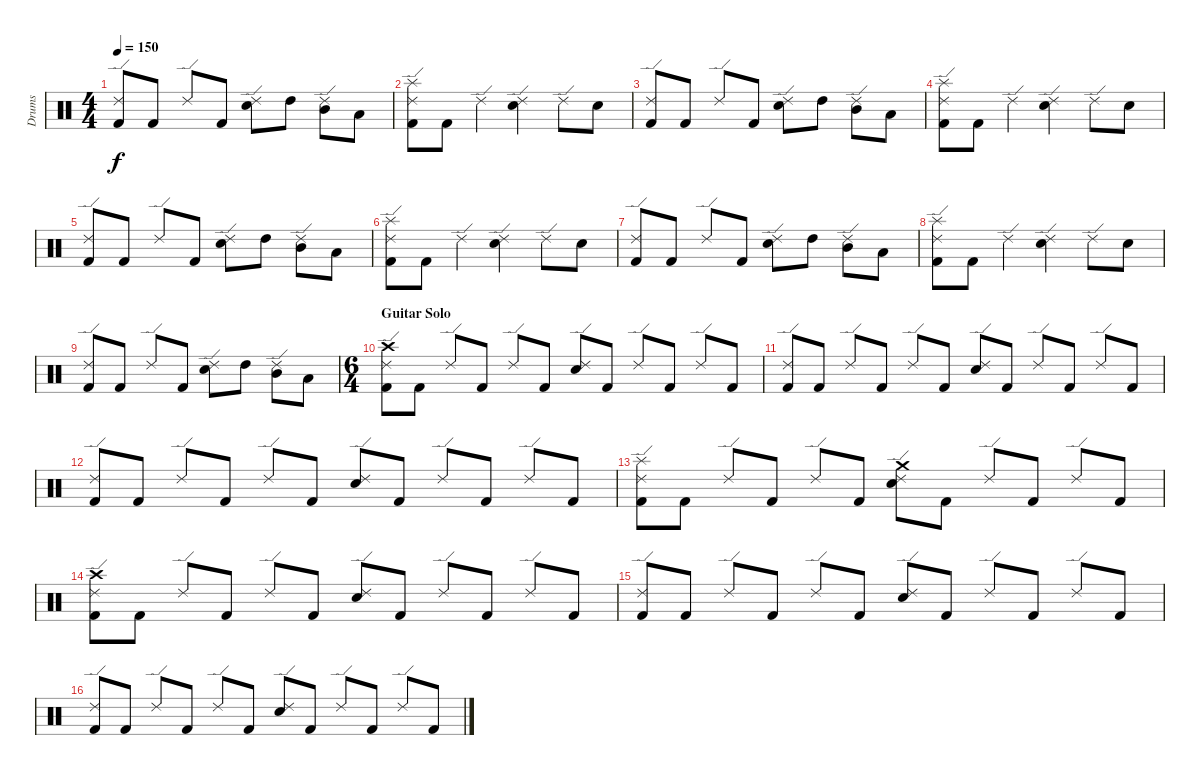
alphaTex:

\track ("Drums" "Drums") {instrument percussion}
\staff {score}
\articulation defaults
\ts (4 4)
\tempo 150
\clef neutral
\ks c
("Ride (edge) 2" "Kick (hit) 2").8{dy f} "Kick (hit) 2".8 "Ride (edge) 2".8 "Kick (hit) 2".8 ("Ride (edge) 2" "Electric Snare (hit)").8 "High Tom (hit)".8 ("Ride (edge) 2" "Mid Tom (hit)").8 "Low Tom (hit)".8 |
("Splash (hit)" "Ride (edge) 2" "Kick (hit) 2").8 "Kick (hit) 2".8 "Ride (edge) 2".4 ("Ride (edge) 2" "Electric Snare (hit)").4 "Ride (edge) 2".8 "Electric Snare (hit)".8 |
("Ride (edge) 2" "Kick (hit) 2").8 "Kick (hit) 2".8 "Ride (edge) 2".8 "Kick (hit) 2".8 ("Ride (edge) 2" "Electric Snare (hit)").8 "High Tom (hit)".8 ("Ride (edge) 2" "Mid Tom (hit)").8 "Low Tom (hit)".8 |
("Splash (hit)" "Ride (edge) 2" "Kick (hit) 2").8 "Kick (hit) 2".8 "Ride (edge) 2".4 ("Ride (edge) 2" "Electric Snare (hit)").4 "Ride (edge) 2".8 "Electric Snare (hit)".8 |
("Ride (edge) 2" "Kick (hit) 2").8 "Kick (hit) 2".8 "Ride (edge) 2".8 "Kick (hit) 2".8 ("Ride (edge) 2" "Electric Snare (hit)").8 "High Tom (hit)".8 ("Ride (edge) 2" "Mid Tom (hit)").8 "Low Tom (hit)".8 |
("Splash (hit)" "Ride (edge) 2" "Kick (hit) 2").8 "Kick (hit) 2".8 "Ride (edge) 2".4 ("Ride (edge) 2" "Electric Snare (hit)").4 "Ride (edge) 2".8 "Electric Snare (hit)".8 |
("Ride (edge) 2" "Kick (hit) 2").8 "Kick (hit) 2".8 "Ride (edge) 2".8 "Kick (hit) 2".8 ("Ride (edge) 2" "Electric Snare (hit)").8 "High Tom (hit)".8 ("Ride (edge) 2" "Mid Tom (hit)").8 "Low Tom (hit)".8 |
("Splash (hit)" "Ride (edge) 2" "Kick (hit) 2").8 "Kick (hit) 2".8 "Ride (edge) 2".4 ("Ride (edge) 2" "Electric Snare (hit)").4 "Ride (edge) 2".8 "Electric Snare (hit)".8 |
("Ride (edge) 2" "Kick (hit) 2").8 "Kick (hit) 2".8 "Ride (edge) 2".8 "Kick (hit) 2".8 ("Ride (edge) 2" "Electric Snare (hit)").8 "High Tom (hit)".8 ("Ride (edge) 2" "Mid Tom (hit)").8 "Low Tom (hit)".8 |
\ts (6 4)
\section ("" "Guitar Solo")
("Crash high (hit)" "Ride (edge) 2" "Kick (hit) 2").8 "Kick (hit) 2".8 "Ride (edge) 2".8 "Kick (hit) 2".8 "Ride (edge) 2".8 "Kick (hit) 2".8 ("Ride (edge) 2" "Electric Snare (hit)").8 "Kick (hit) 2".8 "Ride (edge) 2".8 "Kick (hit) 2".8 "Ride (edge) 2".8 "Kick (hit) 2".8 |
("Ride (edge) 2" "Kick (hit) 2").8 "Kick (hit) 2".8 "Ride (edge) 2".8 "Kick (hit) 2".8 "Ride (edge) 2".8 "Kick (hit) 2".8 ("Ride (edge) 2" "Electric Snare (hit)").8 "Kick (hit) 2".8 "Ride (edge) 2".8 "Kick (hit) 2".8 "Ride (edge) 2".8 "Kick (hit) 2".8 |
("Ride (edge) 2" "Kick (hit) 2").8 "Kick (hit) 2".8 "Ride (edge) 2".8 "Kick (hit) 2".8 "Ride (edge) 2".8 "Kick (hit) 2".8 ("Ride (edge) 2" "Electric Snare (hit)").8 "Kick (hit) 2".8 "Ride (edge) 2".8 "Kick (hit) 2".8 "Ride (edge) 2".8 "Kick (hit) 2".8 |
("Splash (hit)" "Ride (edge) 2" "Kick (hit) 2").8 "Kick (hit) 2".8 "Ride (edge) 2".8 "Kick (hit) 2".8 "Ride (edge) 2".8 "Kick (hit) 2".8 ("Crash medium (hit)" "Ride (edge) 2" "Electric Snare (hit)").8 "Kick (hit) 2".8 "Ride (edge) 2".8 "Kick (hit) 2".8 "Ride (edge) 2".8 "Kick (hit) 2".8 |
("Crash high (hit)" "Ride (edge) 2" "Kick (hit) 2").8 "Kick (hit) 2".8 "Ride (edge) 2".8 "Kick (hit) 2".8 "Ride (edge) 2".8 "Kick (hit) 2".8 ("Ride (edge) 2" "Electric Snare (hit)").8 "Kick (hit) 2".8 "Ride (edge) 2".8 "Kick (hit) 2".8 "Ride (edge) 2".8 "Kick (hit) 2".8 |
("Ride (edge) 2" "Kick (hit) 2").8 "Kick (hit) 2".8 "Ride (edge) 2".8 "Kick (hit) 2".8 "Ride (edge) 2".8 "Kick (hit) 2".8 ("Ride (edge) 2" "Electric Snare (hit)").8 "Kick (hit) 2".8 "Ride (edge) 2".8 "Kick (hit) 2".8 "Ride (edge) 2".8 "Kick (hit) 2".8 |
("Ride (edge) 2" "Kick (hit) 2").8 "Kick (hit) 2".8 "Ride (edge) 2".8 "Kick (hit) 2".8 "Ride (edge) 2".8 "Kick (hit) 2".8 ("Ride (edge) 2" "Electric Snare (hit)").8 "Kick (hit) 2".8 "Ride (edge) 2".8 "Kick (hit) 2".8 "Ride (edge) 2".8 "Kick (hit) 2".8
